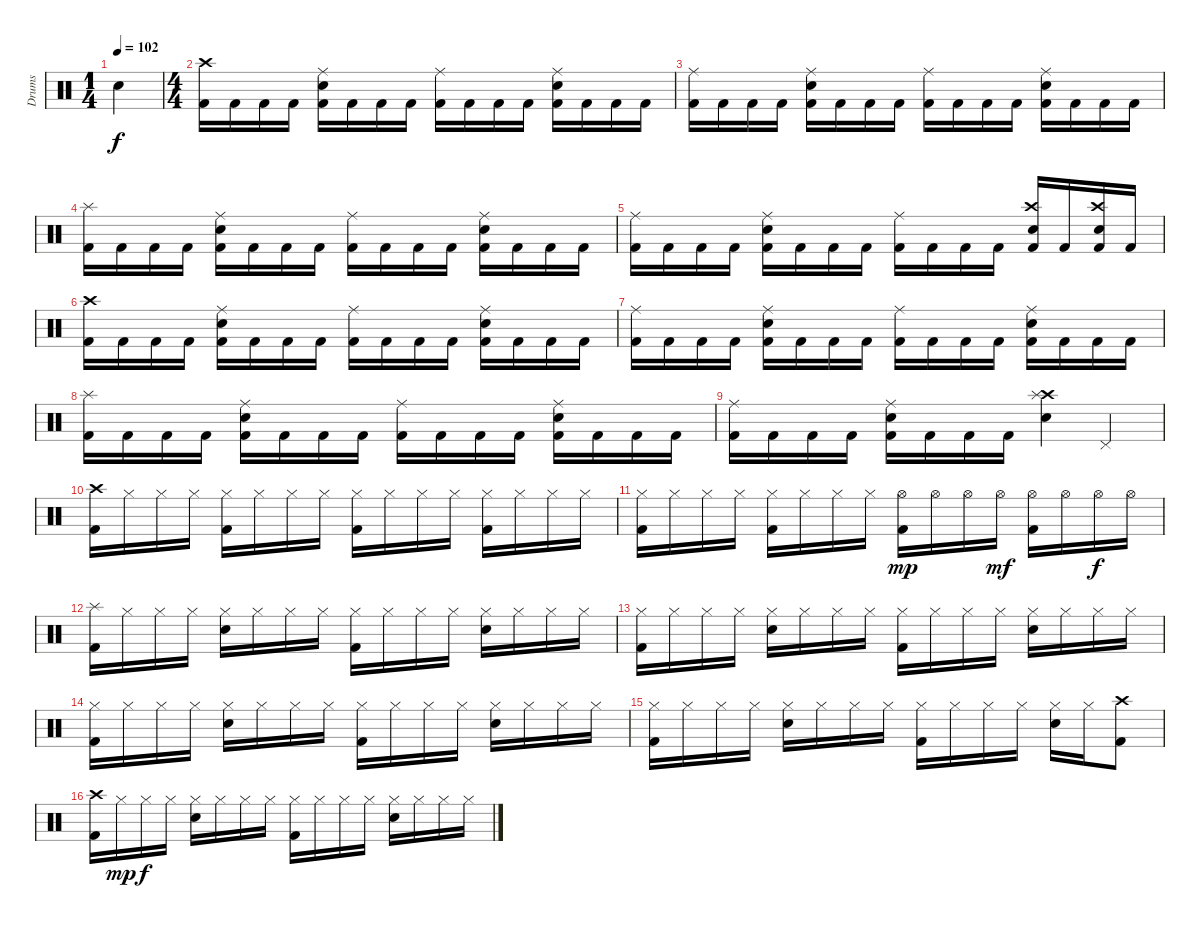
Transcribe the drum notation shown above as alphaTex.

\track ("Drums" "Drums") {instrument percussion}
\staff {score}
\articulation defaults
\ts (1 4)
\tempo 102
\clef neutral
\ks c "Snare (hit) 2".4{dy f}
|
\ts (4 4)
("Crash high (hit)" "Kick (hit) 2").16 "Kick (hit) 2".16 "Kick (hit) 2".16 "Kick (hit) 2".16 ("Ride (middle)" "Snare (hit) 2" "Kick (hit) 2").16 "Kick (hit) 2".16 "Kick (hit) 2".16 "Kick (hit) 2".16 ("Ride (middle)" "Kick (hit) 2").16 "Kick (hit) 2".16 "Kick (hit) 2".16 "Kick (hit) 2".16 ("Ride (middle)" "Snare (hit) 2" "Kick (hit) 2").16 "Kick (hit) 2".16 "Kick (hit) 2".16 "Kick (hit) 2".16 |
("Ride (middle)" "Kick (hit) 2").16 "Kick (hit) 2".16 "Kick (hit) 2".16 "Kick (hit) 2".16 ("Ride (middle)" "Snare (hit) 2" "Kick (hit) 2").16 "Kick (hit) 2".16 "Kick (hit) 2".16 "Kick (hit) 2".16 ("Ride (middle)" "Kick (hit) 2").16 "Kick (hit) 2".16 "Kick (hit) 2".16 "Kick (hit) 2".16 ("Ride (middle)" "Snare (hit) 2" "Kick (hit) 2").16 "Kick (hit) 2".16 "Kick (hit) 2".16 "Kick (hit) 2".16 |
("Splash (hit)" "Kick (hit) 2").16 "Kick (hit) 2".16 "Kick (hit) 2".16 "Kick (hit) 2".16 ("Ride (middle)" "Snare (hit) 2" "Kick (hit) 2").16 "Kick (hit) 2".16 "Kick (hit) 2".16 "Kick (hit) 2".16 ("Ride (middle)" "Kick (hit) 2").16 "Kick (hit) 2".16 "Kick (hit) 2".16 "Kick (hit) 2".16 ("Ride (middle)" "Snare (hit) 2" "Kick (hit) 2").16 "Kick (hit) 2".16 "Kick (hit) 2".16 "Kick (hit) 2".16 |
("Ride (middle)" "Kick (hit) 2").16 "Kick (hit) 2".16 "Kick (hit) 2".16 "Kick (hit) 2".16 ("Ride (middle)" "Snare (hit) 2" "Kick (hit) 2").16 "Kick (hit) 2".16 "Kick (hit) 2".16 "Kick (hit) 2".16 ("Ride (middle)" "Kick (hit) 2").16 "Kick (hit) 2".16 "Kick (hit) 2".16 "Kick (hit) 2".16 ("Crash high (hit)" "Snare (hit) 2" "Kick (hit) 2").16 "Kick (hit) 2".16 ("Crash high (hit)" "Snare (hit) 2" "Kick (hit) 2").16 "Kick (hit) 2".16 |
("Crash high (hit)" "Kick (hit) 2").16 "Kick (hit) 2".16 "Kick (hit) 2".16 "Kick (hit) 2".16 ("Ride (middle)" "Snare (hit) 2" "Kick (hit) 2").16 "Kick (hit) 2".16 "Kick (hit) 2".16 "Kick (hit) 2".16 ("Ride (middle)" "Kick (hit) 2").16 "Kick (hit) 2".16 "Kick (hit) 2".16 "Kick (hit) 2".16 ("Ride (middle)" "Snare (hit) 2" "Kick (hit) 2").16 "Kick (hit) 2".16 "Kick (hit) 2".16 "Kick (hit) 2".16 |
("Ride (middle)" "Kick (hit) 2").16 "Kick (hit) 2".16 "Kick (hit) 2".16 "Kick (hit) 2".16 ("Ride (middle)" "Snare (hit) 2" "Kick (hit) 2").16 "Kick (hit) 2".16 "Kick (hit) 2".16 "Kick (hit) 2".16 ("Ride (middle)" "Kick (hit) 2").16 "Kick (hit) 2".16 "Kick (hit) 2".16 "Kick (hit) 2".16 ("Ride (middle)" "Snare (hit) 2" "Kick (hit) 2").16 "Kick (hit) 2".16 "Kick (hit) 2".16 "Kick (hit) 2".16 |
("Splash (hit)" "Kick (hit) 2").16 "Kick (hit) 2".16 "Kick (hit) 2".16 "Kick (hit) 2".16 ("Ride (middle)" "Snare (hit) 2" "Kick (hit) 2").16 "Kick (hit) 2".16 "Kick (hit) 2".16 "Kick (hit) 2".16 ("Ride (middle)" "Kick (hit) 2").16 "Kick (hit) 2".16 "Kick (hit) 2".16 "Kick (hit) 2".16 ("Ride (middle)" "Snare (hit) 2" "Kick (hit) 2").16 "Kick (hit) 2".16 "Kick (hit) 2".16 "Kick (hit) 2".16 |
("Ride (middle)" "Kick (hit) 2").16 "Kick (hit) 2".16 "Kick (hit) 2".16 "Kick (hit) 2".16 ("Ride (middle)" "Snare (hit) 2" "Kick (hit) 2").16 "Kick (hit) 2".16 "Kick (hit) 2".16 "Kick (hit) 2".16 ("Crash high (hit)" "Splash (hit)" "Snare (hit) 2").4 "Pedal Hi-Hat (hit)".4 |
("Crash high (hit)" "Kick (hit) 2").16 "Hi-Hat (closed)".16 "Hi-Hat (closed)".16 "Hi-Hat (closed)".16 ("Hi-Hat (closed)" "Kick (hit) 2").16 "Hi-Hat (closed)".16 "Hi-Hat (closed)".16 "Hi-Hat (closed)".16 ("Hi-Hat (closed)" "Kick (hit) 2").16 "Hi-Hat (closed)".16 "Hi-Hat (closed)".16 "Hi-Hat (closed)".16 ("Hi-Hat (closed)" "Kick (hit) 2").16 "Hi-Hat (closed)".16 "Hi-Hat (closed)".16 "Hi-Hat (closed)".16 |
("Hi-Hat (closed)" "Kick (hit) 2").16 "Hi-Hat (closed)".16 "Hi-Hat (closed)".16 "Hi-Hat (closed)".16 ("Hi-Hat (closed)" "Kick (hit) 2").16 "Hi-Hat (closed)".16 "Hi-Hat (closed)".16 "Hi-Hat (closed)".16 ("Hi-Hat (open)" "Kick (hit) 2").16{dy mp} "Hi-Hat (open)".16 "Hi-Hat (open)".16 "Hi-Hat (open)".16{dy mf} ("Hi-Hat (open)" "Kick (hit) 2").16 "Hi-Hat (open)".16 "Hi-Hat (open)".16{dy f} "Hi-Hat (open)".16 |
("Splash (hit)" "Kick (hit) 2").16 "Hi-Hat (closed)".16 "Hi-Hat (closed)".16 "Hi-Hat (closed)".16 ("Hi-Hat (closed)" "Snare (hit) 2").16 "Hi-Hat (closed)".16 "Hi-Hat (closed)".16 "Hi-Hat (closed)".16 ("Hi-Hat (closed)" "Kick (hit) 2").16 "Hi-Hat (closed)".16 "Hi-Hat (closed)".16 "Hi-Hat (closed)".16 ("Hi-Hat (closed)" "Snare (hit) 2").16 "Hi-Hat (closed)".16 "Hi-Hat (closed)".16 "Hi-Hat (closed)".16 |
("Hi-Hat (closed)" "Kick (hit) 2").16 "Hi-Hat (closed)".16 "Hi-Hat (closed)".16 "Hi-Hat (closed)".16 ("Hi-Hat (closed)" "Snare (hit) 2").16 "Hi-Hat (closed)".16 "Hi-Hat (closed)".16 "Hi-Hat (closed)".16 ("Hi-Hat (closed)" "Kick (hit) 2").16 "Hi-Hat (closed)".16 "Hi-Hat (closed)".16 "Hi-Hat (closed)".16 ("Hi-Hat (closed)" "Snare (hit) 2").16 "Hi-Hat (closed)".16 "Hi-Hat (closed)".16 "Hi-Hat (closed)".16 |
("Hi-Hat (closed)" "Kick (hit) 2").16 "Hi-Hat (closed)".16 "Hi-Hat (closed)".16 "Hi-Hat (closed)".16 ("Hi-Hat (closed)" "Snare (hit) 2").16 "Hi-Hat (closed)".16 "Hi-Hat (closed)".16 "Hi-Hat (closed)".16 ("Hi-Hat (closed)" "Kick (hit) 2").16 "Hi-Hat (closed)".16 "Hi-Hat (closed)".16 "Hi-Hat (closed)".16 ("Hi-Hat (closed)" "Snare (hit) 2").16 "Hi-Hat (closed)".16 "Hi-Hat (closed)".16 "Hi-Hat (closed)".16 |
("Hi-Hat (closed)" "Kick (hit) 2").16 "Hi-Hat (closed)".16 "Hi-Hat (closed)".16 "Hi-Hat (closed)".16 ("Hi-Hat (closed)" "Snare (hit) 2").16 "Hi-Hat (closed)".16 "Hi-Hat (closed)".16 "Hi-Hat (closed)".16 ("Hi-Hat (closed)" "Kick (hit) 2").16 "Hi-Hat (closed)".16 "Hi-Hat (closed)".16 "Hi-Hat (closed)".16 ("Hi-Hat (closed)" "Snare (hit) 2").16 "Hi-Hat (closed)".16 ("Crash high (hit)" "Kick (hit) 2").8 |
("Crash high (hit)" "Kick (hit) 2").16 "Hi-Hat (closed)".16{dy mp} "Hi-Hat (closed)".16{dy f} "Hi-Hat (closed)".16 ("Hi-Hat (closed)" "Snare (hit) 2").16 "Hi-Hat (closed)".16 "Hi-Hat (closed)".16 "Hi-Hat (closed)".16 ("Hi-Hat (closed)" "Kick (hit) 2").16 "Hi-Hat (closed)".16 "Hi-Hat (closed)".16 "Hi-Hat (closed)".16 ("Hi-Hat (closed)" "Snare (hit) 2").16 "Hi-Hat (closed)".16 "Hi-Hat (closed)".16 "Hi-Hat (closed)".16
